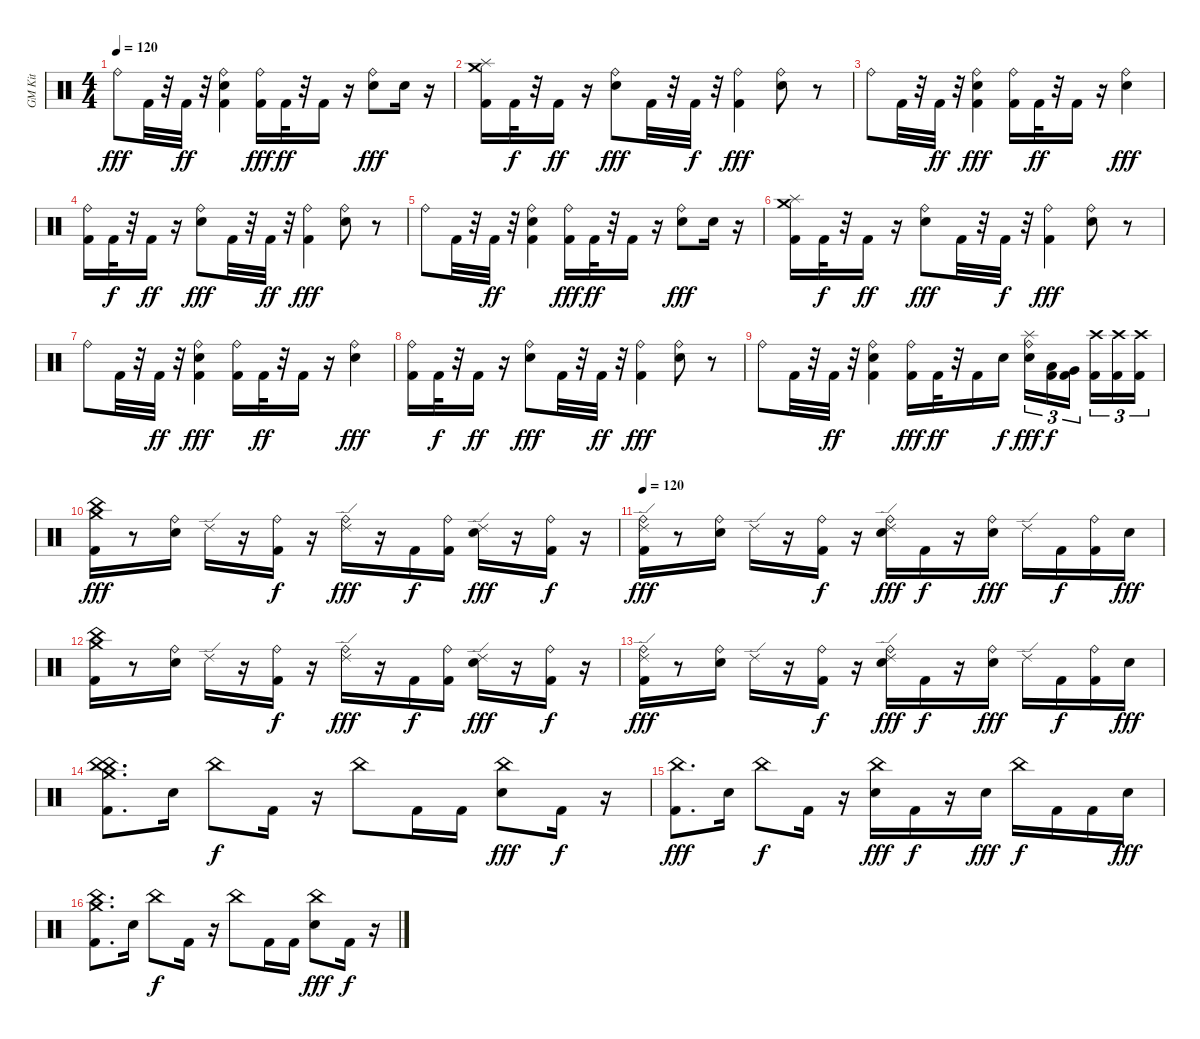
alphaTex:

\track ("GM Kit" "GM Kit") {instrument percussion}
\staff {score}
\articulation defaults
\ts (4 4)
\tempo 120
\clef neutral
\ks c "Ride (bell)".8{dy fff} "Kick (hit) 2".32
r.32 "Kick (hit) 2".32{dy ff} r.32 ("Kick (hit) 2" "Snare (hit) 2" "Ride (bell)").4 ("Kick (hit) 2" "Ride (bell)").16{dy fff} "Kick (hit) 2".32{dy ff} r.32 "Kick (hit) 2".16 r.16 ("Snare (hit) 2" "Ride (bell)").8{dy fff} "Snare (hit) 2".16 r.16 |
("Kick (hit) 2" "Splash (hit)" "Crash medium (hit)").16 "Kick (hit) 2".32{dy f} r.32 "Kick (hit) 2".16{dy ff} r.16 ("Snare (hit) 2" "Ride (bell)").8{dy fff} "Kick (hit) 2".32 r.32 "Kick (hit) 2".32{dy f} r.32 ("Kick (hit) 2" "Ride (bell)").4{dy fff} ("Snare (hit) 2" "Ride (bell)").8 r.8 |
"Ride (bell)".8 "Kick (hit) 2".32 r.32 "Kick (hit) 2".32{dy ff} r.32 ("Kick (hit) 2" "Snare (hit) 2" "Ride (bell)").4{dy fff} ("Kick (hit) 2" "Ride (bell)").16 "Kick (hit) 2".32{dy ff} r.32 "Kick (hit) 2".16 r.16 ("Snare (hit) 2" "Ride (bell)").4{dy fff} |
("Kick (hit) 2" "Ride (bell)").16 "Kick (hit) 2".32{dy f} r.32 "Kick (hit) 2".16{dy ff} r.16 ("Snare (hit) 2" "Ride (bell)").8{dy fff} "Kick (hit) 2".32 r.32 "Kick (hit) 2".32{dy ff} r.32 ("Kick (hit) 2" "Ride (bell)").4{dy fff} ("Snare (hit) 2" "Ride (bell)").8 r.8 |
"Ride (bell)".8 "Kick (hit) 2".32 r.32 "Kick (hit) 2".32{dy ff} r.32 ("Kick (hit) 2" "Snare (hit) 2" "Ride (bell)").4 ("Kick (hit) 2" "Ride (bell)").16{dy fff} "Kick (hit) 2".32{dy ff} r.32 "Kick (hit) 2".16 r.16 ("Snare (hit) 2" "Ride (bell)").8{dy fff} "Snare (hit) 2".16 r.16 |
("Kick (hit) 2" "Splash (hit)" "Crash medium (hit)").16 "Kick (hit) 2".32{dy f} r.32 "Kick (hit) 2".16{dy ff} r.16 ("Snare (hit) 2" "Ride (bell)").8{dy fff} "Kick (hit) 2".32 r.32 "Kick (hit) 2".32{dy f} r.32 ("Kick (hit) 2" "Ride (bell)").4{dy fff} ("Snare (hit) 2" "Ride (bell)").8 r.8 |
"Ride (bell)".8 "Kick (hit) 2".32 r.32 "Kick (hit) 2".32{dy ff} r.32 ("Kick (hit) 2" "Snare (hit) 2" "Ride (bell)").4{dy fff} ("Kick (hit) 2" "Ride (bell)").16 "Kick (hit) 2".32{dy ff} r.32 "Kick (hit) 2".16 r.16 ("Snare (hit) 2" "Ride (bell)").4{dy fff} |
("Kick (hit) 2" "Ride (bell)").16 "Kick (hit) 2".32{dy f} r.32 "Kick (hit) 2".16{dy ff} r.16 ("Snare (hit) 2" "Ride (bell)").8{dy fff} "Kick (hit) 2".32 r.32 "Kick (hit) 2".32{dy ff} r.32 ("Kick (hit) 2" "Ride (bell)").4{dy fff} ("Snare (hit) 2" "Ride (bell)").8 r.8 |
"Ride (bell)".8 "Kick (hit) 2".32 r.32 "Kick (hit) 2".32{dy ff} r.32 ("Kick (hit) 2" "Snare (hit) 2" "Ride (bell)").4 ("Kick (hit) 2" "Ride (bell)").16{dy fff} "Kick (hit) 2".32{dy ff} r.32 "Kick (hit) 2".16 "Snare (hit) 2".16{dy f} ("Snare (hit) 2" "Ride (bell)" "Splash (hit)").16{tu (3 2) dy fff} ("Kick (hit) 2" "Low Tom (hit)").16{tu (3 2) dy f} ("Kick (hit) 2" "Very Low Tom (hit)").16{tu (3 2) beam splitsecondary} ("Kick (hit) 2" "Crash high (hit)").16{tu (3 2)} ("Kick (hit) 2" "Crash high (hit)").16{tu (3 2)} ("Kick (hit) 2" "Crash high (hit)").16{tu (3 2)} |
("Kick (hit) 2" "China (hit)" "Crash medium (hit)").16{dy fff} r.8 ("Snare (hit) 2" "Ride (bell)").16 "Ride (edge) 2".16 r.16 ("Kick (hit) 2" "Ride (bell)").16{dy f} r.16 ("Ride (bell)" "Ride (edge) 2").16{dy fff} r.16 "Kick (hit) 2".16{dy f} ("Kick (hit) 2" "Ride (bell)").16 ("Snare (hit) 2" "Ride (edge) 2").16{dy fff} r.16 ("Kick (hit) 2" "Ride (bell)").16{dy f} r.16 |
\tempo 120
("Kick (hit) 2" "Ride (bell)" "Ride (edge) 2").16{dy fff} r.8 ("Snare (hit) 2" "Ride (bell)").16 "Ride (edge) 2".16 r.16 ("Kick (hit) 2" "Ride (bell)").16{dy f} r.16 ("Snare (hit) 2" "Ride (bell)" "Ride (edge) 2").16{dy fff} "Kick (hit) 2".16{dy f} r.16 ("Snare (hit) 2" "Ride (bell)").16{dy fff} "Ride (edge) 2".16 "Kick (hit) 2".16{dy f} ("Kick (hit) 2" "Ride (bell)").16 "Snare (hit) 2".16{dy fff} |
("Kick (hit) 2" "China (hit)" "Crash medium (hit)").16 r.8 ("Snare (hit) 2" "Ride (bell)").16 "Ride (edge) 2".16 r.16 ("Kick (hit) 2" "Ride (bell)").16{dy f} r.16 ("Ride (bell)" "Ride (edge) 2").16{dy fff} r.16 "Kick (hit) 2".16{dy f} ("Kick (hit) 2" "Ride (bell)").16 ("Snare (hit) 2" "Ride (edge) 2").16{dy fff} r.16 ("Kick (hit) 2" "Ride (bell)").16{dy f} r.16 |
("Kick (hit) 2" "Ride (bell)" "Ride (edge) 2").16{dy fff} r.8 ("Snare (hit) 2" "Ride (bell)").16 "Ride (edge) 2".16 r.16 ("Kick (hit) 2" "Ride (bell)").16{dy f} r.16 ("Snare (hit) 2" "Ride (bell)" "Ride (edge) 2").16{dy fff} "Kick (hit) 2".16{dy f} r.16 ("Snare (hit) 2" "Ride (bell)").16{dy fff} "Ride (edge) 2".16 "Kick (hit) 2".16{dy f} ("Kick (hit) 2" "Ride (bell)").16 "Snare (hit) 2".16{dy fff} |
("Kick (hit) 2" "China (hit)" "China (hit)" "Crash medium (hit)").8{d} "Snare (hit) 2".16 "China (hit)".8{dy f} "Kick (hit) 2".16 r.16 "China (hit)".8 "Kick (hit) 2".16 "Kick (hit) 2".16 ("Snare (hit) 2" "China (hit)").8{dy fff} "Kick (hit) 2".16{dy f} r.16 |
("Kick (hit) 2" "China (hit)").8{d dy fff} "Snare (hit) 2".16 "China (hit)".8{dy f} "Kick (hit) 2".16 r.16 ("Snare (hit) 2" "China (hit)").16{dy fff} "Kick (hit) 2".16{dy f} r.16 "Snare (hit) 2".16{dy fff} "China (hit)".16{dy f} "Kick (hit) 2".16 "Kick (hit) 2".16 "Snare (hit) 2".16{dy fff} |
("Kick (hit) 2" "China (hit)" "Crash medium (hit)").8{d} "Snare (hit) 2".16 "China (hit)".8{dy f} "Kick (hit) 2".16 r.16 "China (hit)".8 "Kick (hit) 2".16 "Kick (hit) 2".16 ("Snare (hit) 2" "China (hit)").8{dy fff} "Kick (hit) 2".16{dy f} r.16
